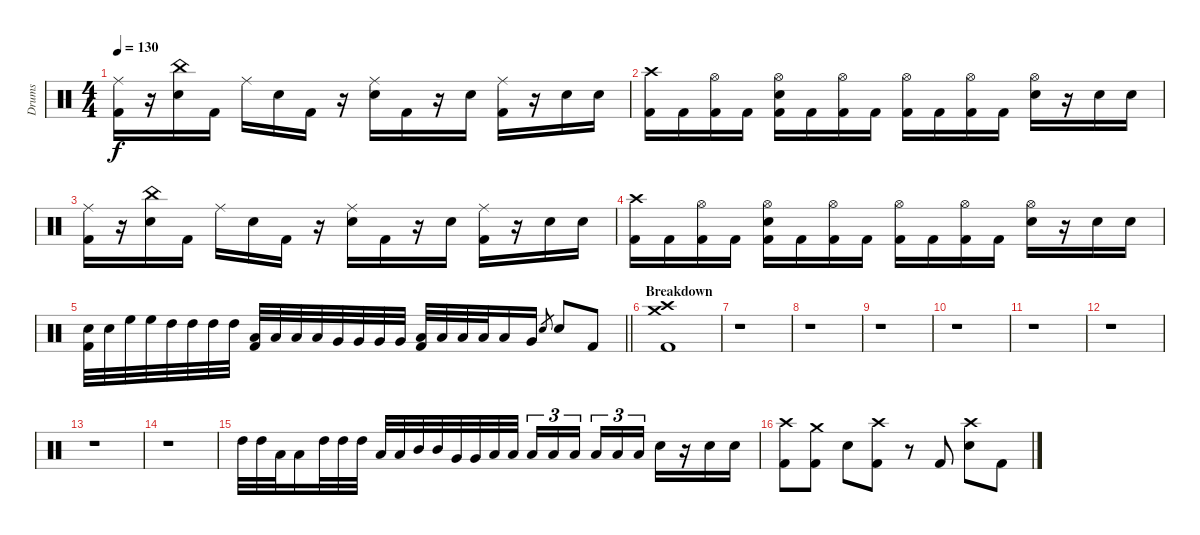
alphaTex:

\track ("Drums" "Drums") {instrument percussion}
\staff {score}
\articulation defaults
\ts (4 4)
\tempo 130
\clef neutral
\ks c
("Ride (middle)" "Kick (hit) 2").16{dy f} r.16 ("China (hit)" "Snare (hit) 2").16 "Kick (hit) 2".16 "Ride (middle)".16 "Snare (hit) 2".16 "Kick (hit) 2".16 r.16 ("Ride (middle)" "Snare (hit) 2").16 "Kick (hit) 2".16 r.16 "Snare (hit) 2".16 ("Ride (middle)" "Kick (hit) 2").16 r.16 "Snare (hit) 2".16 "Snare (hit) 2".16 |
("Crash high (hit)" "Kick (hit) 2").16 "Kick (hit) 2".16 ("Hi-Hat (open)" "Kick (hit) 2").16 "Kick (hit) 2".16 ("Hi-Hat (open)" "Snare (hit) 2" "Kick (hit) 2").16 "Kick (hit) 2".16 ("Hi-Hat (open)" "Kick (hit) 2").16 "Kick (hit) 2".16 ("Hi-Hat (open)" "Kick (hit) 2").16 "Kick (hit) 2".16 ("Hi-Hat (open)" "Kick (hit) 2").16 "Kick (hit) 2".16 ("Hi-Hat (open)" "Snare (hit) 2").16 r.16 "Snare (hit) 2".16 "Snare (hit) 2".16 |
("Ride (middle)" "Kick (hit) 2").16 r.16 ("China (hit)" "Snare (hit) 2").16 "Kick (hit) 2".16 "Ride (middle)".16 "Snare (hit) 2".16 "Kick (hit) 2".16 r.16 ("Ride (middle)" "Snare (hit) 2").16 "Kick (hit) 2".16 r.16 "Snare (hit) 2".16 ("Ride (middle)" "Kick (hit) 2").16 r.16 "Snare (hit) 2".16 "Snare (hit) 2".16 |
("Crash high (hit)" "Kick (hit) 2").16 "Kick (hit) 2".16 ("Hi-Hat (open)" "Kick (hit) 2").16 "Kick (hit) 2".16 ("Hi-Hat (open)" "Snare (hit) 2" "Kick (hit) 2").16 "Kick (hit) 2".16 ("Hi-Hat (open)" "Kick (hit) 2").16 "Kick (hit) 2".16 ("Hi-Hat (open)" "Kick (hit) 2").16 "Kick (hit) 2".16 ("Hi-Hat (open)" "Kick (hit) 2").16 "Kick (hit) 2".16 ("Hi-Hat (open)" "Snare (hit) 2").16 r.16 "Snare (hit) 2".16 "Snare (hit) 2".16 |
\barLineRight lightlight
("Snare (hit) 2" "Kick (hit) 2").32 "Snare (hit) 2".32 "High Floor Tom (hit)".32 "High Floor Tom (hit)".32 "High Tom (hit)".32 "High Tom (hit)".32 "High Tom (hit)".32 "High Tom (hit)".32 ("Low Tom (hit)" "Kick (hit) 2").32 "Low Tom (hit)".32 "Low Tom (hit)".32 "Low Tom (hit)".32 "Very Low Tom (hit)".32 "Very Low Tom (hit)".32 "Very Low Tom (hit)".32 "Very Low Tom (hit)".32 ("Low Floor Tom (hit)" "Kick (hit) 2").32 "Low Floor Tom (hit)".32 "Low Floor Tom (hit)".32 "Low Floor Tom (hit)".32 "Low Floor Tom (hit)".16 "Very Low Tom (hit)".16 "Snare (hit) 2".8{gr} "Snare (hit) 2".8 "Kick (hit) 2".8 |
\section ("" "Breakdown")
("Crash medium (hit)" "Crash high (hit)" "Kick (hit) 2").1 |
r.1 |
r.1 |
r.1 |
r.1 |
r.1 |
r.1 |
r.1 |
r.1 |
"High Tom (hit)".32 "High Tom (hit)".32 "Low Tom (hit)".32 "Low Tom (hit)".16 "High Tom (hit)".32 "High Tom (hit)".32 "High Tom (hit)".32 "Low Tom (hit)".32 "Low Tom (hit)".32 "Mid Tom (hit)".32 "Mid Tom (hit)".32 "Very Low Tom (hit)".32 "Very Low Tom (hit)".32 "Low Tom (hit)".32 "Low Tom (hit)".32 "Low Floor Tom (hit)".16{tu (3 2)} "Low Floor Tom (hit)".16{tu (3 2)} "Low Floor Tom (hit)".16{tu (3 2) beam splitsecondary} "Low Floor Tom (hit)".16{tu (3 2)} "Low Floor Tom (hit)".16{tu (3 2)} "Low Floor Tom (hit)".16{tu (3 2)} "Snare (hit) 2".16 r.16 "Snare (hit) 2".16 "Snare (hit) 2".16 |
("Crash high (hit)" "Kick (hit) 2").8 ("Crash medium (hit)" "Kick (hit) 2").8 "Snare (hit) 2".8 ("Crash high (hit)" "Kick (hit) 2").8 r.8 "Kick (hit) 2".8 ("Crash high (hit)" "Snare (hit) 2").8 "Kick (hit) 2".8
